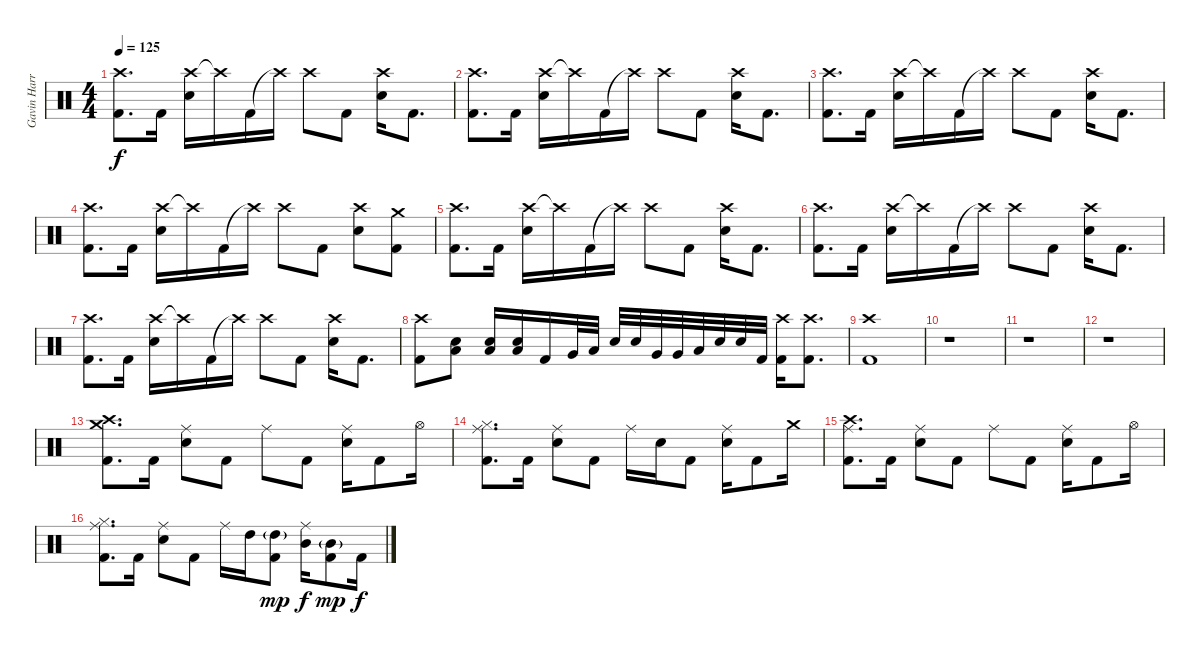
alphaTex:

\track ("Gavin Harrison" "Gavin Harr") {instrument percussion}
\staff {score}
\articulation defaults
\ts (4 4)
\tempo 125
\clef neutral
\ks c
("Crash high (hit)" "Kick (hit) 2").8{d dy f} "Kick (hit) 2".16 ("Crash high (hit)" "Electric Snare (hit)").16 "Crash high (hit)"{t}.16 "Kick (hit) 2".16 "Crash high (hit)"{t}.16 "Crash high (hit)".8 "Kick (hit) 2".8 ("Crash high (hit)" "Electric Snare (hit)").16 "Kick (hit) 2".8{d} |
("Crash high (hit)" "Kick (hit) 2").8{d} "Kick (hit) 2".16 ("Crash high (hit)" "Electric Snare (hit)").16 "Crash high (hit)"{t}.16 "Kick (hit) 2".16 "Crash high (hit)"{t}.16 "Crash high (hit)".8 "Kick (hit) 2".8 ("Crash high (hit)" "Electric Snare (hit)").16 "Kick (hit) 2".8{d} |
("Crash high (hit)" "Kick (hit) 2").8{d} "Kick (hit) 2".16 ("Crash high (hit)" "Electric Snare (hit)").16 "Crash high (hit)"{t}.16 "Kick (hit) 2".16 "Crash high (hit)"{t}.16 "Crash high (hit)".8 "Kick (hit) 2".8 ("Crash high (hit)" "Electric Snare (hit)").16 "Kick (hit) 2".8{d} |
("Crash high (hit)" "Kick (hit) 2").8{d} "Kick (hit) 2".16 ("Crash high (hit)" "Electric Snare (hit)").16 "Crash high (hit)"{t}.16 "Kick (hit) 2".16 "Crash high (hit)"{t}.16 "Crash high (hit)".8 "Kick (hit) 2".8 ("Crash high (hit)" "Electric Snare (hit)").8 ("Crash medium (hit)" "Kick (hit) 2").8 |
("Crash high (hit)" "Kick (hit) 2").8{d} "Kick (hit) 2".16 ("Crash high (hit)" "Electric Snare (hit)").16 "Crash high (hit)"{t}.16 "Kick (hit) 2".16 "Crash high (hit)"{t}.16 "Crash high (hit)".8 "Kick (hit) 2".8 ("Crash high (hit)" "Electric Snare (hit)").16 "Kick (hit) 2".8{d} |
("Crash high (hit)" "Kick (hit) 2").8{d} "Kick (hit) 2".16 ("Crash high (hit)" "Electric Snare (hit)").16 "Crash high (hit)"{t}.16 "Kick (hit) 2".16 "Crash high (hit)"{t}.16 "Crash high (hit)".8 "Kick (hit) 2".8 ("Crash high (hit)" "Electric Snare (hit)").16 "Kick (hit) 2".8{d} |
("Crash high (hit)" "Kick (hit) 2").8{d} "Kick (hit) 2".16 ("Crash high (hit)" "Electric Snare (hit)").16 "Crash high (hit)"{t}.16 "Kick (hit) 2".16 "Crash high (hit)"{t}.16 "Crash high (hit)".8 "Kick (hit) 2".8 ("Crash high (hit)" "Electric Snare (hit)").16 "Kick (hit) 2".8{d} |
("Crash high (hit)" "Kick (hit) 2").8 ("Low Floor Tom (hit)" "Electric Snare (hit)").8 ("Low Floor Tom (hit)" "Electric Snare (hit)").16 ("Low Floor Tom (hit)" "Electric Snare (hit)").16 "Kick (hit) 2".16 "Very Low Tom (hit)".32 "Low Tom (hit)".32 "Electric Snare (hit)".32 "Electric Snare (hit)".32 "Very Low Tom (hit)".32 "Very Low Tom (hit)".32 "Low Tom (hit)".32 "Electric Snare (hit)".32 "Electric Snare (hit)".32 "Kick (hit) 2".32 ("Crash high (hit)" "Kick (hit) 2").16 ("Crash high (hit)" "Kick (hit) 2").8{d} |
("Crash high (hit)" "Kick (hit) 2").1 |
r.1 |
r.1 |
r.1 |
("Crash high (hit)" "Crash medium (hit)" "Kick (hit) 2").8{d} "Kick (hit) 2".16 ("Ride (middle)" "Electric Snare (hit)").8 "Kick (hit) 2".8 "Ride (middle)".8 "Kick (hit) 2".8 ("Ride (middle)" "Electric Snare (hit)").16 "Kick (hit) 2".8 "Hi-Hat (open)".16 |
("Ride (middle)" "Hi-Hat (closed)" "Kick (hit) 2").8{d} "Kick (hit) 2".16 ("Ride (middle)" "Electric Snare (hit)").8 "Kick (hit) 2".8 "Ride (middle)".16 "Electric Snare (hit)".16 "Kick (hit) 2".8 ("Ride (middle)" "Electric Snare (hit)").16 "Kick (hit) 2".8 "Crash medium (hit)".16 |
("Ride (middle)" "Crash high (hit)" "Kick (hit) 2").8{d} "Kick (hit) 2".16 ("Ride (middle)" "Electric Snare (hit)").8 "Kick (hit) 2".8 "Ride (middle)".8 "Kick (hit) 2".8 ("Ride (middle)" "Electric Snare (hit)").16 "Kick (hit) 2".8 "Hi-Hat (open)".16 |
("Ride (middle)" "Hi-Hat (closed)" "Kick (hit) 2").8{d} "Kick (hit) 2".16 ("Ride (middle)" "Electric Snare (hit)").8 "Kick (hit) 2".8 "Ride (middle)".16 "High Tom (hit)".16 ("High Tom (hit)"{g} "Kick (hit) 2").8{dy mp} ("Ride (middle)" "Mid Tom (hit)").16{dy f} ("Mid Tom (hit)"{g} "Kick (hit) 2").8{dy mp} "Kick (hit) 2".16{dy f}
